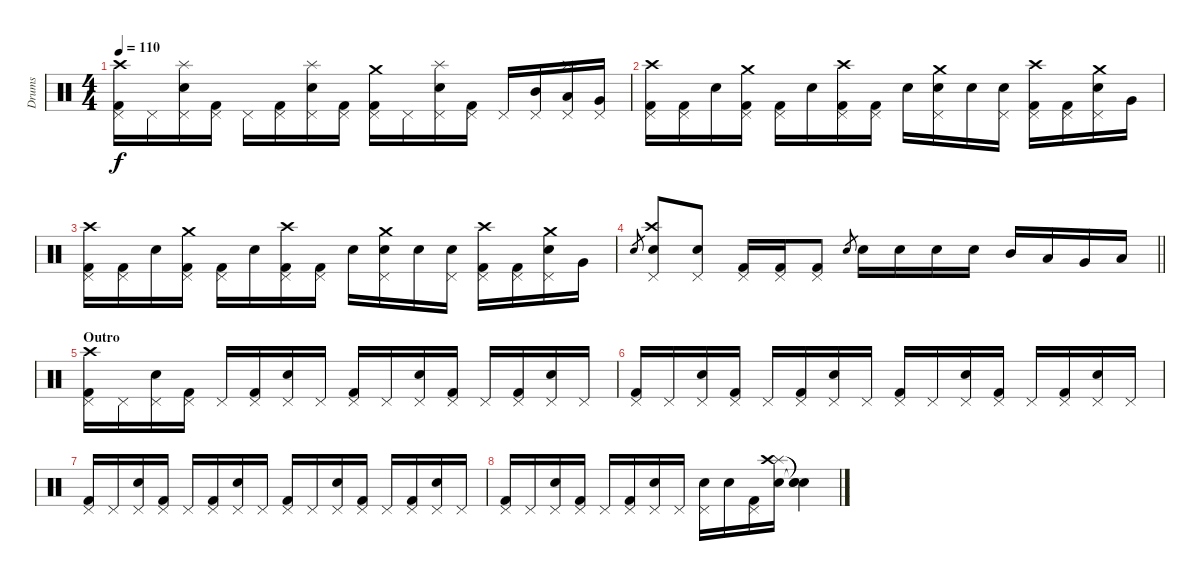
\track ("Drums" "Drums") {instrument percussion}
\staff {score}
\articulation defaults
\ts (4 4)
\tempo 110
\clef neutral
\ks c
("Kick (hit) 2" "Pedal Hi-Hat (hit)" "Crash high (hit)").16{dy f} "Pedal Hi-Hat (hit)".16 ("Snare (hit) 2" "Pedal Hi-Hat (hit)" "Splash (hit)").16 ("Kick (hit) 2" "Pedal Hi-Hat (hit)").16 "Pedal Hi-Hat (hit)".16 ("Kick (hit) 2" "Pedal Hi-Hat (hit)").16 ("Snare (hit) 2" "Pedal Hi-Hat (hit)" "Splash (hit)").16 ("Kick (hit) 2" "Pedal Hi-Hat (hit)").16 ("Kick (hit) 2" "Pedal Hi-Hat (hit)" "Crash medium (hit)").16 "Pedal Hi-Hat (hit)".16 ("Snare (hit) 2" "Pedal Hi-Hat (hit)" "Splash (hit)").16 ("Kick (hit) 2" "Pedal Hi-Hat (hit)").16 "Pedal Hi-Hat (hit)".16 ("Mid Tom (hit)" "Pedal Hi-Hat (hit)").16 ("Low Tom (hit)" "Pedal Hi-Hat (hit)" "Splash (hit)").16 ("Very Low Tom (hit)" "Pedal Hi-Hat (hit)").16 |
("Kick (hit) 2" "Pedal Hi-Hat (hit)" "Crash high (hit)").16 ("Kick (hit) 2" "Pedal Hi-Hat (hit)").16 "Snare (hit) 2".16 ("Kick (hit) 2" "Pedal Hi-Hat (hit)" "Crash medium (hit)").16 ("Kick (hit) 2" "Pedal Hi-Hat (hit)").16 "Snare (hit) 2".16 ("Kick (hit) 2" "Pedal Hi-Hat (hit)" "Crash high (hit)").16 ("Kick (hit) 2" "Pedal Hi-Hat (hit)").16 "Snare (hit) 2".16 ("Snare (hit) 2" "Pedal Hi-Hat (hit)" "Crash medium (hit)").16 "Snare (hit) 2".16 ("Snare (hit) 2" "Pedal Hi-Hat (hit)").16 ("Kick (hit) 2" "Pedal Hi-Hat (hit)" "Crash high (hit)").16 ("Kick (hit) 2" "Pedal Hi-Hat (hit)").16 ("Snare (hit) 2" "Pedal Hi-Hat (hit)" "Crash medium (hit)").16 "Very Low Tom (hit)".16 |
("Kick (hit) 2" "Pedal Hi-Hat (hit)" "Crash high (hit)").16 ("Kick (hit) 2" "Pedal Hi-Hat (hit)").16 "Snare (hit) 2".16 ("Kick (hit) 2" "Pedal Hi-Hat (hit)" "Crash medium (hit)").16 ("Kick (hit) 2" "Pedal Hi-Hat (hit)").16 "Snare (hit) 2".16 ("Kick (hit) 2" "Pedal Hi-Hat (hit)" "Crash high (hit)").16 ("Kick (hit) 2" "Pedal Hi-Hat (hit)").16 "Snare (hit) 2".16 ("Snare (hit) 2" "Pedal Hi-Hat (hit)" "Crash medium (hit)").16 "Snare (hit) 2".16 ("Snare (hit) 2" "Pedal Hi-Hat (hit)").16 ("Kick (hit) 2" "Pedal Hi-Hat (hit)" "Crash high (hit)").16 ("Kick (hit) 2" "Pedal Hi-Hat (hit)").16 ("Snare (hit) 2" "Pedal Hi-Hat (hit)" "Crash medium (hit)").16 "Very Low Tom (hit)".16 |
\barLineRight lightlight "Snare (hit) 2".8{gr}
("Snare (hit) 2" "Pedal Hi-Hat (hit)" "Crash high (hit)").8 ("Snare (hit) 2" "Pedal Hi-Hat (hit)").8 ("Kick (hit) 2" "Pedal Hi-Hat (hit)").16 ("Kick (hit) 2" "Pedal Hi-Hat (hit)").16 ("Kick (hit) 2" "Pedal Hi-Hat (hit)").8 "Snare (hit) 2".8{gr} "Snare (hit) 2".16 "Snare (hit) 2".16 "Snare (hit) 2".16 "Snare (hit) 2".16 "Mid Tom (hit)".16 "Low Tom (hit)".16 "Very Low Tom (hit)".16 "Low Floor Tom (hit)".16 |
\section ("" "Outro")
("Kick (hit) 2" "Pedal Hi-Hat (hit)" "Crash high (hit)").16 "Pedal Hi-Hat (hit)".16 ("Snare (hit) 2" "Pedal Hi-Hat (hit)").16 ("Kick (hit) 2" "Pedal Hi-Hat (hit)").16 "Pedal Hi-Hat (hit)".16 ("Kick (hit) 2" "Pedal Hi-Hat (hit)").16 ("Snare (hit) 2" "Pedal Hi-Hat (hit)").16 "Pedal Hi-Hat (hit)".16 ("Kick (hit) 2" "Pedal Hi-Hat (hit)").16 "Pedal Hi-Hat (hit)".16 ("Snare (hit) 2" "Pedal Hi-Hat (hit)").16 ("Kick (hit) 2" "Pedal Hi-Hat (hit)").16 "Pedal Hi-Hat (hit)".16 ("Kick (hit) 2" "Pedal Hi-Hat (hit)").16 ("Snare (hit) 2" "Pedal Hi-Hat (hit)").16 "Pedal Hi-Hat (hit)".16 |
("Kick (hit) 2" "Pedal Hi-Hat (hit)").16 "Pedal Hi-Hat (hit)".16 ("Snare (hit) 2" "Pedal Hi-Hat (hit)").16 ("Kick (hit) 2" "Pedal Hi-Hat (hit)").16 "Pedal Hi-Hat (hit)".16 ("Kick (hit) 2" "Pedal Hi-Hat (hit)").16 ("Snare (hit) 2" "Pedal Hi-Hat (hit)").16 "Pedal Hi-Hat (hit)".16 ("Kick (hit) 2" "Pedal Hi-Hat (hit)").16 "Pedal Hi-Hat (hit)".16 ("Snare (hit) 2" "Pedal Hi-Hat (hit)").16 ("Kick (hit) 2" "Pedal Hi-Hat (hit)").16 "Pedal Hi-Hat (hit)".16 ("Kick (hit) 2" "Pedal Hi-Hat (hit)").16 ("Snare (hit) 2" "Pedal Hi-Hat (hit)").16 "Pedal Hi-Hat (hit)".16 |
("Kick (hit) 2" "Pedal Hi-Hat (hit)").16 "Pedal Hi-Hat (hit)".16 ("Snare (hit) 2" "Pedal Hi-Hat (hit)").16 ("Kick (hit) 2" "Pedal Hi-Hat (hit)").16 "Pedal Hi-Hat (hit)".16 ("Kick (hit) 2" "Pedal Hi-Hat (hit)").16 ("Snare (hit) 2" "Pedal Hi-Hat (hit)").16 "Pedal Hi-Hat (hit)".16 ("Kick (hit) 2" "Pedal Hi-Hat (hit)").16 "Pedal Hi-Hat (hit)".16 ("Snare (hit) 2" "Pedal Hi-Hat (hit)").16 ("Kick (hit) 2" "Pedal Hi-Hat (hit)").16 "Pedal Hi-Hat (hit)".16 ("Kick (hit) 2" "Pedal Hi-Hat (hit)").16 ("Snare (hit) 2" "Pedal Hi-Hat (hit)").16 "Pedal Hi-Hat (hit)".16 |
("Kick (hit) 2" "Pedal Hi-Hat (hit)").16 "Pedal Hi-Hat (hit)".16 ("Snare (hit) 2" "Pedal Hi-Hat (hit)").16 ("Kick (hit) 2" "Pedal Hi-Hat (hit)").16 "Pedal Hi-Hat (hit)".16 ("Kick (hit) 2" "Pedal Hi-Hat (hit)").16 ("Snare (hit) 2" "Pedal Hi-Hat (hit)").16 "Pedal Hi-Hat (hit)".16 ("Snare (hit) 2" "Pedal Hi-Hat (hit)").16 "Snare (hit) 2".16 ("Kick (hit) 2" "Pedal Hi-Hat (hit)").16 ("Snare (hit) 2" "Splash (hit)" "Crash high (hit)").16 ("Snare (hit)"{t} "Snare (hit)"{t} "Snare (hit)"{t}).4
